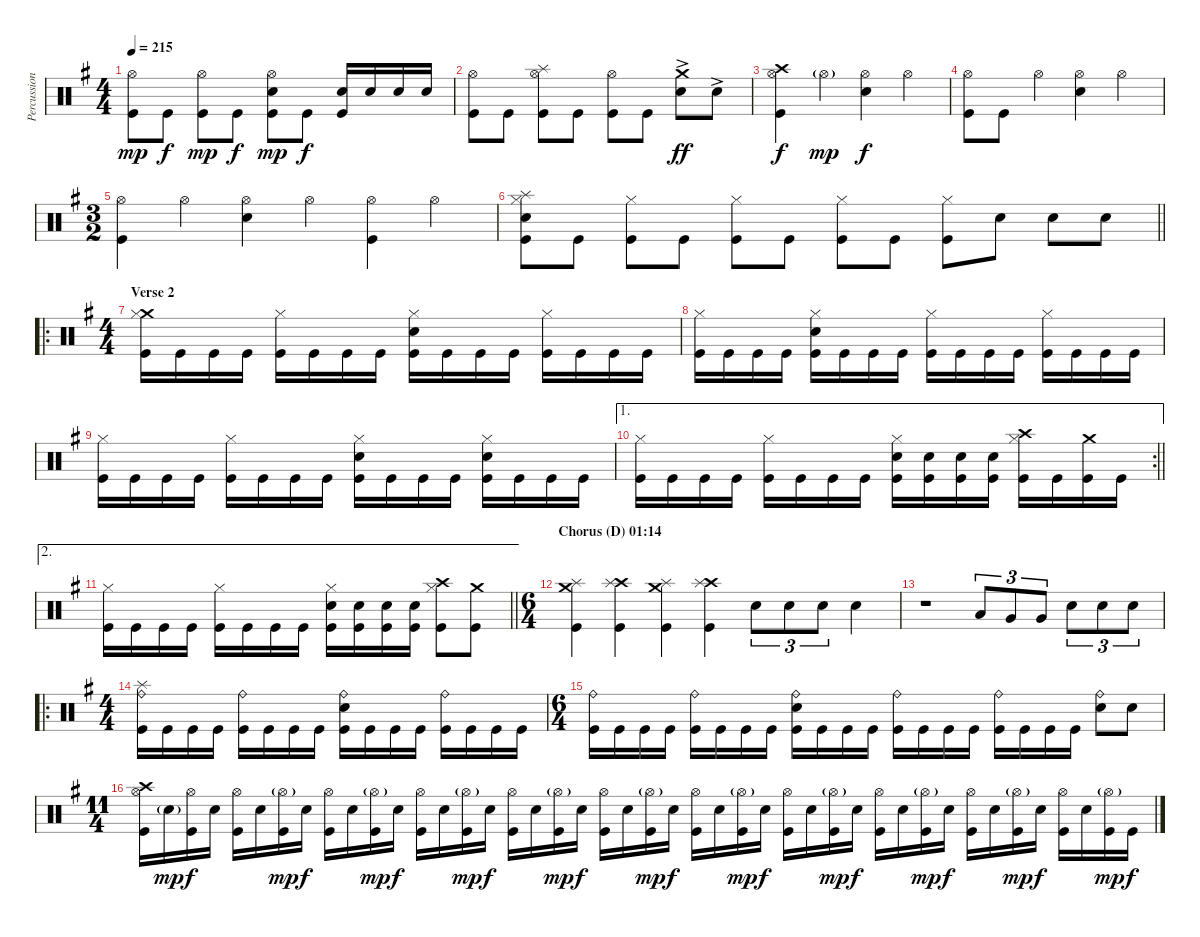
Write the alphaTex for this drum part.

\track ("Percussion" "Percussion") {instrument percussion}
\staff {score}
\articulation defaults
\ts (4 4)
\tempo 215
\clef neutral
\ks eminor
("Hi-Hat (open)" "Kick (hit)").8{dy mp} "Kick (hit)".8{dy f} ("Hi-Hat (open)" "Kick (hit)").8{dy mp} "Kick (hit)".8{dy f} ("Hi-Hat (open)" "Snare (hit) 2" "Kick (hit)").8{dy mp} "Kick (hit)".8{dy f} ("Snare (hit) 2" "Kick (hit)").16 "Snare (hit) 2".16 "Snare (hit) 2".16 "Snare (hit) 2".16 |
("Hi-Hat (open)" "Kick (hit)").8 "Kick (hit)".8 ("Splash (hit)" "Hi-Hat (open)" "Kick (hit)").8 "Kick (hit)".8 ("Hi-Hat (open)" "Kick (hit)").8 "Kick (hit)".8 ("Crash medium (hit)" "Snare (hit) 2"{ac}).8{dy ff} "Snare (hit) 2"{ac}.8 |
("Crash high (hit)" "Hi-Hat (open)" "Kick (hit)").4{dy f} "Hi-Hat (open)"{g}.4{dy mp} ("Hi-Hat (open)" "Snare (hit) 2").4{dy f} "Hi-Hat (open)".4 |
("Hi-Hat (open)" "Kick (hit)").8 "Kick (hit)".8 "Hi-Hat (open)".4 ("Hi-Hat (open)" "Snare (hit) 2").4 "Hi-Hat (open)".4 |
\ts (3 2)
("Hi-Hat (open)" "Kick (hit)").4 "Hi-Hat (open)".4 ("Hi-Hat (open)" "Snare (hit) 2").4 "Hi-Hat (open)".4 ("Hi-Hat (open)" "Kick (hit)").4 "Hi-Hat (open)".4 |
\barLineRight lightlight
("Splash (hit)" "Hi-Hat (closed)" "Snare (hit) 2" "Kick (hit)").8 "Kick (hit)".8 ("Hi-Hat (closed)" "Kick (hit)").8 "Kick (hit)".8 ("Hi-Hat (closed)" "Kick (hit)").8 "Kick (hit)".8 ("Hi-Hat (closed)" "Kick (hit)").8 "Kick (hit)".8 ("Hi-Hat (closed)" "Kick (hit)").8 "Snare (hit) 2".8 "Snare (hit) 2".8 "Snare (hit) 2".8 |
\ro
\ts (4 4)
\section ("" "Verse 2")
("Crash medium (hit)" "Hi-Hat (closed)" "Kick (hit)").16 "Kick (hit)".16 "Kick (hit)".16 "Kick (hit)".16 ("Hi-Hat (closed)" "Kick (hit)").16 "Kick (hit)".16 "Kick (hit)".16 "Kick (hit)".16 ("Hi-Hat (closed)" "Snare (hit) 2" "Kick (hit)").16 "Kick (hit)".16 "Kick (hit)".16 "Kick (hit)".16 ("Hi-Hat (closed)" "Kick (hit)").16 "Kick (hit)".16 "Kick (hit)".16 "Kick (hit)".16 |
("Hi-Hat (closed)" "Kick (hit)").16 "Kick (hit)".16 "Kick (hit)".16 "Kick (hit)".16 ("Hi-Hat (closed)" "Snare (hit) 2" "Kick (hit)").16 "Kick (hit)".16 "Kick (hit)".16 "Kick (hit)".16 ("Hi-Hat (closed)" "Kick (hit)").16 "Kick (hit)".16 "Kick (hit)".16 "Kick (hit)".16 ("Hi-Hat (closed)" "Kick (hit)").16 "Kick (hit)".16 "Kick (hit)".16 "Kick (hit)".16 |
("Hi-Hat (closed)" "Kick (hit)").16 "Kick (hit)".16 "Kick (hit)".16 "Kick (hit)".16 ("Hi-Hat (closed)" "Kick (hit)").16 "Kick (hit)".16 "Kick (hit)".16 "Kick (hit)".16 ("Hi-Hat (closed)" "Snare (hit) 2" "Kick (hit)").16 "Kick (hit)".16 "Kick (hit)".16 "Kick (hit)".16 ("Hi-Hat (closed)" "Snare (hit) 2" "Kick (hit)").16 "Kick (hit)".16 "Kick (hit)".16 "Kick (hit)".16 |
\ae 1
\rc 2
\barLineRight lightlight
("Hi-Hat (closed)" "Kick (hit)").16 "Kick (hit)".16 "Kick (hit)".16 "Kick (hit)".16 ("Hi-Hat (closed)" "Kick (hit)").16 "Kick (hit)".16 "Kick (hit)".16 "Kick (hit)".16 ("Hi-Hat (closed)" "Snare (hit) 2" "Kick (hit)").16 ("Snare (hit) 2" "Kick (hit)").16 ("Snare (hit) 2" "Kick (hit)").16 ("Snare (hit) 2" "Kick (hit)").16 ("Crash high (hit)" "Hi-Hat (closed)" "Kick (hit)").16 "Kick (hit)".16 ("Crash medium (hit)" "Kick (hit)").16 "Kick (hit)".16 |
\ae 2
\barLineRight lightlight
("Hi-Hat (closed)" "Kick (hit)").16 "Kick (hit)".16 "Kick (hit)".16 "Kick (hit)".16 ("Hi-Hat (closed)" "Kick (hit)").16 "Kick (hit)".16 "Kick (hit)".16 "Kick (hit)".16 ("Hi-Hat (closed)" "Snare (hit) 2" "Kick (hit)").16 ("Snare (hit) 2" "Kick (hit)").16 ("Snare (hit) 2" "Kick (hit)").16 ("Snare (hit) 2" "Kick (hit)").16 ("Crash high (hit)" "Hi-Hat (closed)" "Kick (hit)").8 ("Crash medium (hit)" "Kick (hit)").8 |
\ts (6 4)
\section ("" "Chorus (D) 01:14")
("Crash medium (hit)" "Splash (hit)" "Kick (hit)").4 ("Crash high (hit)" "Splash (hit)" "Kick (hit)").4 ("Crash medium (hit)" "Splash (hit)" "Kick (hit)").4 ("Crash high (hit)" "Splash (hit)" "Kick (hit)").4 "Snare (hit) 2".8{tu (3 2)} "Snare (hit) 2".8{tu (3 2)} "Snare (hit) 2".8{tu (3 2)} "Snare (hit) 2".4 |
r.1 "Low Tom (hit)".8{tu (3 2)} "Very Low Tom (hit)".8{tu (3 2)} "Very Low Tom (hit)".8{tu (3 2)} "Snare (hit) 2".8{tu (3 2)} "Snare (hit) 2".8{tu (3 2)} "Snare (hit) 2".8{tu (3 2)} |
\ro
\ts (4 4)
("Splash (hit)" "Ride (bell)" "Kick (hit)").16 "Kick (hit)".16 "Kick (hit)".16 "Kick (hit)".16 ("Ride (bell)" "Kick (hit)").16 "Kick (hit)".16 "Kick (hit)".16 "Kick (hit)".16 ("Ride (bell)" "Snare (hit) 2" "Kick (hit)").16 "Kick (hit)".16 "Kick (hit)".16 "Kick (hit)".16 ("Ride (bell)" "Kick (hit)").16 "Kick (hit)".16 "Kick (hit)".16 "Kick (hit)".16 |
\ts (6 4)
("Ride (bell)" "Kick (hit)").16 "Kick (hit)".16 "Kick (hit)".16 "Kick (hit)".16 ("Ride (bell)" "Kick (hit)").16 "Kick (hit)".16 "Kick (hit)".16 "Kick (hit)".16 ("Ride (bell)" "Snare (hit) 2" "Kick (hit)").16 "Kick (hit)".16 "Kick (hit)".16 "Kick (hit)".16 ("Ride (bell)" "Kick (hit)").16 "Kick (hit)".16 "Kick (hit)".16 "Kick (hit)".16 ("Ride (bell)" "Kick (hit)").16 "Kick (hit)".16 "Kick (hit)".16 "Kick (hit)".16 ("Ride (bell)" "Snare (hit) 2").8 "Snare (hit) 2".8 |
\ts (11 4)
("Crash high (hit)" "Hi-Hat (open)" "Kick (hit)").16 "Snare (hit) 2"{g}.16{dy mp} ("Hi-Hat (open)" "Kick (hit)").16{dy f} "Snare (hit) 2".16 ("Hi-Hat (open)" "Kick (hit)").16 "Snare (hit) 2".16 ("Hi-Hat (open)"{g} "Kick (hit)").16{dy mp} "Snare (hit) 2".16{dy f} ("Hi-Hat (open)" "Kick (hit)").16 "Snare (hit) 2".16 ("Hi-Hat (open)"{g} "Kick (hit)").16{dy mp} "Snare (hit) 2".16{dy f} ("Hi-Hat (open)" "Kick (hit)").16 "Snare (hit) 2".16 ("Hi-Hat (open)"{g} "Kick (hit)").16{dy mp} "Snare (hit) 2".16{dy f} ("Hi-Hat (open)" "Kick (hit)").16 "Snare (hit) 2".16 ("Hi-Hat (open)"{g} "Kick (hit)").16{dy mp} "Snare (hit) 2".16{dy f} ("Hi-Hat (open)" "Kick (hit)").16 "Snare (hit) 2".16 ("Hi-Hat (open)"{g} "Kick (hit)").16{dy mp} "Snare (hit) 2".16{dy f} ("Hi-Hat (open)" "Kick (hit)").16 "Snare (hit) 2".16 ("Hi-Hat (open)"{g} "Kick (hit)").16{dy mp} "Snare (hit) 2".16{dy f} ("Hi-Hat (open)" "Kick (hit)").16 "Snare (hit) 2".16 ("Hi-Hat (open)"{g} "Kick (hit)").16{dy mp} "Snare (hit) 2".16{dy f} ("Hi-Hat (open)" "Kick (hit)").16 "Snare (hit) 2".16 ("Hi-Hat (open)"{g} "Kick (hit)").16{dy mp} "Snare (hit) 2".16{dy f} ("Hi-Hat (open)" "Kick (hit)").16 "Snare (hit) 2".16 ("Hi-Hat (open)"{g} "Kick (hit)").16{dy mp} "Snare (hit) 2".16{dy f} ("Hi-Hat (open)" "Kick (hit)").16 "Snare (hit) 2".16 ("Hi-Hat (open)"{g} "Kick (hit)").16{dy mp} "Kick (hit)".16{dy f}
